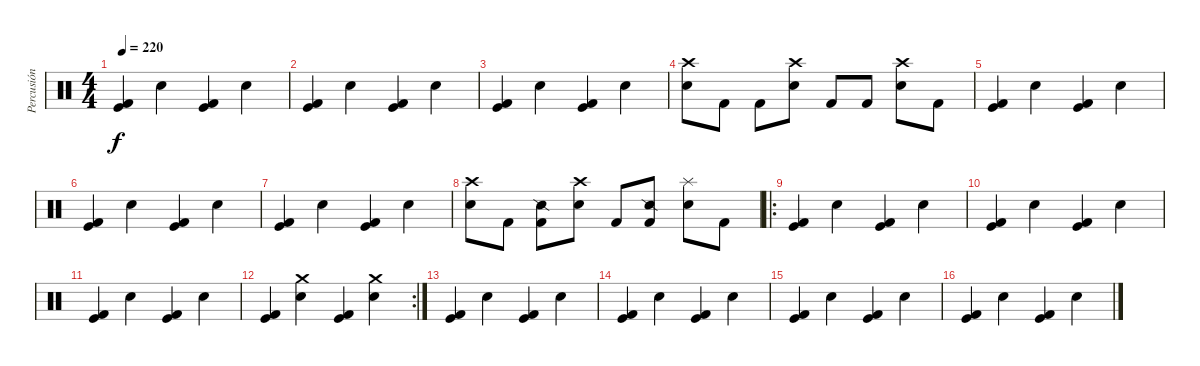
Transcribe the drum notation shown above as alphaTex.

\track ("Percusión" "Percusión") {instrument percussion}
\staff {score}
\articulation defaults
\ts (4 4)
\tempo 220
\clef neutral
\ks c
("Kick (hit) 2" "Kick (hit)").4{dy f} "Snare (hit) 2".4 ("Kick (hit) 2" "Kick (hit)").4 "Snare (hit) 2".4 |
("Kick (hit) 2" "Kick (hit)").4 "Snare (hit) 2".4 ("Kick (hit) 2" "Kick (hit)").4 "Snare (hit) 2".4 |
("Kick (hit) 2" "Kick (hit)").4 "Snare (hit) 2".4 ("Kick (hit) 2" "Kick (hit)").4 "Snare (hit) 2".4 |
("Crash high (hit)" "Snare (hit) 2").8 "Kick (hit) 2".8 "Kick (hit) 2".8 ("Crash high (hit)" "Snare (hit) 2").8 "Kick (hit) 2".8 "Kick (hit) 2".8 ("Crash high (hit)" "Snare (hit) 2").8 "Kick (hit) 2".8 |
("Kick (hit) 2" "Kick (hit)").4 "Snare (hit) 2".4 ("Kick (hit) 2" "Kick (hit)").4 "Snare (hit) 2".4 |
("Kick (hit) 2" "Kick (hit)").4 "Snare (hit) 2".4 ("Kick (hit) 2" "Kick (hit)").4 "Snare (hit) 2".4 |
("Kick (hit) 2" "Kick (hit)").4 "Snare (hit) 2".4 ("Kick (hit) 2" "Kick (hit)").4 "Snare (hit) 2".4 |
("Crash high (hit)" "Snare (hit) 2").8 "Kick (hit) 2".8 ("Snare (side stick) 2" "Kick (hit) 2").8 ("Crash high (hit)" "Snare (hit) 2").8 "Kick (hit) 2".8 ("Snare (side stick) 2" "Kick (hit) 2").8 ("Splash (hit)" "Snare (hit) 2").8 "Kick (hit) 2".8 |
\ro
("Kick (hit) 2" "Kick (hit)").4 "Snare (hit) 2".4 ("Kick (hit) 2" "Kick (hit)").4 "Snare (hit) 2".4 |
("Kick (hit) 2" "Kick (hit)").4 "Snare (hit) 2".4 ("Kick (hit) 2" "Kick (hit)").4 "Snare (hit) 2".4 |
("Kick (hit) 2" "Kick (hit)").4 "Snare (hit) 2".4 ("Kick (hit) 2" "Kick (hit)").4 "Snare (hit) 2".4 |
\rc 2
("Kick (hit) 2" "Kick (hit)").4 ("Crash medium (hit)" "Snare (hit) 2").4 ("Kick (hit) 2" "Kick (hit)").4 ("Crash medium (hit)" "Snare (hit) 2").4 |
("Kick (hit) 2" "Kick (hit)").4 "Snare (hit) 2".4 ("Kick (hit) 2" "Kick (hit)").4 "Snare (hit) 2".4 |
("Kick (hit) 2" "Kick (hit)").4 "Snare (hit) 2".4 ("Kick (hit) 2" "Kick (hit)").4 "Snare (hit) 2".4 |
("Kick (hit) 2" "Kick (hit)").4 "Snare (hit) 2".4 ("Kick (hit) 2" "Kick (hit)").4 "Snare (hit) 2".4 |
("Kick (hit) 2" "Kick (hit)").4 "Snare (hit) 2".4 ("Kick (hit) 2" "Kick (hit)").4 "Snare (hit) 2".4
